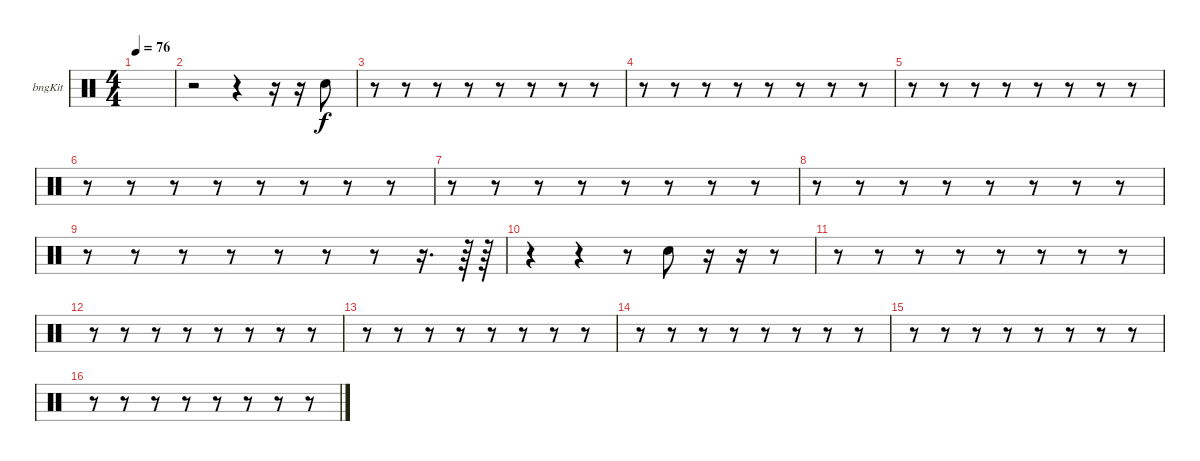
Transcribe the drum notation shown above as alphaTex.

\bracketExtendMode groupsimilarinstruments
\firstSystemTrackNameOrientation horizontal
\otherSystemsTrackNameOrientation horizontal
\track ("Bongos" "bngKit") {instrument percussion}
\staff {score}
\articulation defaults
\ts (4 4)
\tempo 76
\clef neutral
\ks c
|
r.2 r.4 r.16 r.16 "Snare (hit) 2".8 |
r.8 r.8 r.8 r.8 r.8 r.8 r.8 r.8 |
r.8 r.8 r.8 r.8 r.8 r.8 r.8 r.8 |
r.8 r.8 r.8 r.8 r.8 r.8 r.8 r.8 |
r.8 r.8 r.8 r.8 r.8 r.8 r.8 r.8 |
r.8 r.8 r.8 r.8 r.8 r.8 r.8 r.8 |
r.8 r.8 r.8 r.8 r.8 r.8 r.8 r.8 |
r.8 r.8 r.8 r.8 r.8 r.8 r.8 r.16{d} r.64 r.64 |
r.4 r.4 r.8 "Snare (hit) 2".8 r.16 r.16 r.8 |
r.8 r.8 r.8 r.8 r.8 r.8 r.8 r.8 |
r.8 r.8 r.8 r.8 r.8 r.8 r.8 r.8 |
r.8 r.8 r.8 r.8 r.8 r.8 r.8 r.8 |
r.8 r.8 r.8 r.8 r.8 r.8 r.8 r.8 |
r.8 r.8 r.8 r.8 r.8 r.8 r.8 r.8 |
r.8 r.8 r.8 r.8 r.8 r.8 r.8 r.8
